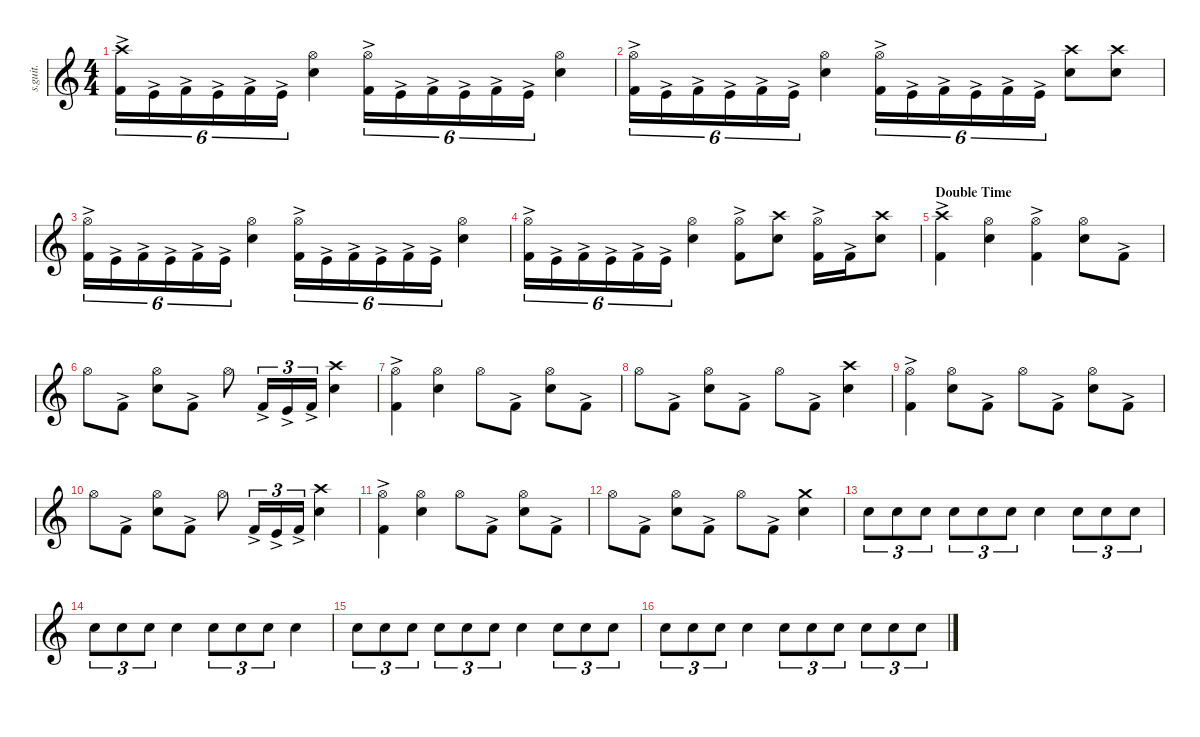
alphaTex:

\defaultSystemsLayout 4
\hideDynamics
\bracketExtendMode nobrackets
\track ("Lars Ulrich - Drums" "s.guit.") {instrument percussion}
\staff {score}
\articulation defaults
\ts (4 4)
\tempo (108 hide)
\clef g2
\ks c
("Kick (hit) 2"{ac} "Crash high (hit)").16{tu (6 4) lyrics (0 "") lyrics (1 "") lyrics (2 "") lyrics (3 "") lyrics (4 "") dy f} "Kick (hit)"{ac}.16{tu (6 4) lyrics (0 "") lyrics (1 "") lyrics (2 "") lyrics (3 "") lyrics (4 "")} "Kick (hit) 2"{ac}.16{tu (6 4) lyrics (0 "") lyrics (1 "") lyrics (2 "") lyrics (3 "") lyrics (4 "") dy mp} "Kick (hit)"{ac}.16{tu (6 4) lyrics (0 "") lyrics (1 "") lyrics (2 "") lyrics (3 "") lyrics (4 "")} "Kick (hit) 2"{ac}.16{tu (6 4) lyrics (0 "") lyrics (1 "") lyrics (2 "") lyrics (3 "") lyrics (4 "")} "Kick (hit)"{ac}.16{tu (6 4) lyrics (0 "") lyrics (1 "") lyrics (2 "") lyrics (3 "") lyrics (4 "")} ("Hi-Hat (open)" "Snare (hit) 2").4{lyrics (0 "") lyrics (1 "") lyrics (2 "") lyrics (3 "") lyrics (4 "") dy f} ("Hi-Hat (open)" "Kick (hit) 2"{ac}).16{tu (6 4) lyrics (0 "") lyrics (1 "") lyrics (2 "") lyrics (3 "") lyrics (4 "")} "Kick (hit)"{ac}.16{tu (6 4) lyrics (0 "") lyrics (1 "") lyrics (2 "") lyrics (3 "") lyrics (4 "")} "Kick (hit) 2"{ac}.16{tu (6 4) lyrics (0 "") lyrics (1 "") lyrics (2 "") lyrics (3 "") lyrics (4 "") dy mp} "Kick (hit)"{ac}.16{tu (6 4) lyrics (0 "") lyrics (1 "") lyrics (2 "") lyrics (3 "") lyrics (4 "")} "Kick (hit) 2"{ac}.16{tu (6 4) lyrics (0 "") lyrics (1 "") lyrics (2 "") lyrics (3 "") lyrics (4 "")} "Kick (hit)"{ac}.16{tu (6 4) lyrics (0 "") lyrics (1 "") lyrics (2 "") lyrics (3 "") lyrics (4 "")} ("Hi-Hat (open)" "Snare (hit) 2").4{lyrics (0 "") lyrics (1 "") lyrics (2 "") lyrics (3 "") lyrics (4 "") dy f} |
("Hi-Hat (open)" "Kick (hit) 2"{ac}).16{tu (6 4) lyrics (0 "") lyrics (1 "") lyrics (2 "") lyrics (3 "") lyrics (4 "")} "Kick (hit)"{ac}.16{tu (6 4) lyrics (0 "") lyrics (1 "") lyrics (2 "") lyrics (3 "") lyrics (4 "")} "Kick (hit) 2"{ac}.16{tu (6 4) lyrics (0 "") lyrics (1 "") lyrics (2 "") lyrics (3 "") lyrics (4 "") dy mp} "Kick (hit)"{ac}.16{tu (6 4) lyrics (0 "") lyrics (1 "") lyrics (2 "") lyrics (3 "") lyrics (4 "")} "Kick (hit) 2"{ac}.16{tu (6 4) lyrics (0 "") lyrics (1 "") lyrics (2 "") lyrics (3 "") lyrics (4 "")} "Kick (hit)"{ac}.16{tu (6 4) lyrics (0 "") lyrics (1 "") lyrics (2 "") lyrics (3 "") lyrics (4 "")} ("Hi-Hat (open)" "Snare (hit) 2").4{lyrics (0 "") lyrics (1 "") lyrics (2 "") lyrics (3 "") lyrics (4 "") dy f} ("Hi-Hat (open)" "Kick (hit) 2"{ac}).16{tu (6 4) lyrics (0 "") lyrics (1 "") lyrics (2 "") lyrics (3 "") lyrics (4 "")} "Kick (hit)"{ac}.16{tu (6 4) lyrics (0 "") lyrics (1 "") lyrics (2 "") lyrics (3 "") lyrics (4 "")} "Kick (hit) 2"{ac}.16{tu (6 4) lyrics (0 "") lyrics (1 "") lyrics (2 "") lyrics (3 "") lyrics (4 "") dy mp} "Kick (hit)"{ac}.16{tu (6 4) lyrics (0 "") lyrics (1 "") lyrics (2 "") lyrics (3 "") lyrics (4 "")} "Kick (hit) 2"{ac}.16{tu (6 4) lyrics (0 "") lyrics (1 "") lyrics (2 "") lyrics (3 "") lyrics (4 "")} "Kick (hit)"{ac}.16{tu (6 4) lyrics (0 "") lyrics (1 "") lyrics (2 "") lyrics (3 "") lyrics (4 "")} ("Snare (hit) 2" "Crash high (hit)").8{lyrics (0 "") lyrics (1 "") lyrics (2 "") lyrics (3 "") lyrics (4 "") dy f} ("Snare (hit) 2" "Crash high (hit)").8{lyrics (0 "") lyrics (1 "") lyrics (2 "") lyrics (3 "") lyrics (4 "")} |
("Hi-Hat (open)" "Kick (hit) 2"{ac}).16{tu (6 4) lyrics (0 "") lyrics (1 "") lyrics (2 "") lyrics (3 "") lyrics (4 "")} "Kick (hit)"{ac}.16{tu (6 4) lyrics (0 "") lyrics (1 "") lyrics (2 "") lyrics (3 "") lyrics (4 "")} "Kick (hit) 2"{ac}.16{tu (6 4) lyrics (0 "") lyrics (1 "") lyrics (2 "") lyrics (3 "") lyrics (4 "") dy mp} "Kick (hit)"{ac}.16{tu (6 4) lyrics (0 "") lyrics (1 "") lyrics (2 "") lyrics (3 "") lyrics (4 "")} "Kick (hit) 2"{ac}.16{tu (6 4) lyrics (0 "") lyrics (1 "") lyrics (2 "") lyrics (3 "") lyrics (4 "")} "Kick (hit)"{ac}.16{tu (6 4) lyrics (0 "") lyrics (1 "") lyrics (2 "") lyrics (3 "") lyrics (4 "")} ("Hi-Hat (open)" "Snare (hit) 2").4{lyrics (0 "") lyrics (1 "") lyrics (2 "") lyrics (3 "") lyrics (4 "") dy f} ("Hi-Hat (open)" "Kick (hit) 2"{ac}).16{tu (6 4) lyrics (0 "") lyrics (1 "") lyrics (2 "") lyrics (3 "") lyrics (4 "")} "Kick (hit)"{ac}.16{tu (6 4) lyrics (0 "") lyrics (1 "") lyrics (2 "") lyrics (3 "") lyrics (4 "")} "Kick (hit) 2"{ac}.16{tu (6 4) lyrics (0 "") lyrics (1 "") lyrics (2 "") lyrics (3 "") lyrics (4 "") dy mp} "Kick (hit)"{ac}.16{tu (6 4) lyrics (0 "") lyrics (1 "") lyrics (2 "") lyrics (3 "") lyrics (4 "")} "Kick (hit) 2"{ac}.16{tu (6 4) lyrics (0 "") lyrics (1 "") lyrics (2 "") lyrics (3 "") lyrics (4 "")} "Kick (hit)"{ac}.16{tu (6 4) lyrics (0 "") lyrics (1 "") lyrics (2 "") lyrics (3 "") lyrics (4 "")} ("Hi-Hat (open)" "Snare (hit) 2").4{lyrics (0 "") lyrics (1 "") lyrics (2 "") lyrics (3 "") lyrics (4 "") dy f} |
("Hi-Hat (open)" "Kick (hit) 2"{ac}).16{tu (6 4) lyrics (0 "") lyrics (1 "") lyrics (2 "") lyrics (3 "") lyrics (4 "")} "Kick (hit)"{ac}.16{tu (6 4) lyrics (0 "") lyrics (1 "") lyrics (2 "") lyrics (3 "") lyrics (4 "")} "Kick (hit) 2"{ac}.16{tu (6 4) lyrics (0 "") lyrics (1 "") lyrics (2 "") lyrics (3 "") lyrics (4 "") dy mp} "Kick (hit)"{ac}.16{tu (6 4) lyrics (0 "") lyrics (1 "") lyrics (2 "") lyrics (3 "") lyrics (4 "")} "Kick (hit) 2"{ac}.16{tu (6 4) lyrics (0 "") lyrics (1 "") lyrics (2 "") lyrics (3 "") lyrics (4 "")} "Kick (hit)"{ac}.16{tu (6 4) lyrics (0 "") lyrics (1 "") lyrics (2 "") lyrics (3 "") lyrics (4 "")} ("Hi-Hat (open)" "Snare (hit) 2").4{lyrics (0 "") lyrics (1 "") lyrics (2 "") lyrics (3 "") lyrics (4 "") dy f} ("Hi-Hat (open)" "Kick (hit) 2"{ac}).8{lyrics (0 "") lyrics (1 "") lyrics (2 "") lyrics (3 "") lyrics (4 "")} ("Crash high (hit)" "Snare (hit) 2").8{lyrics (0 "") lyrics (1 "") lyrics (2 "") lyrics (3 "") lyrics (4 "")} ("Hi-Hat (open)" "Kick (hit) 2"{ac}).16{lyrics (0 "") lyrics (1 "") lyrics (2 "") lyrics (3 "") lyrics (4 "")} "Kick (hit) 2"{ac}.16{lyrics (0 "") lyrics (1 "") lyrics (2 "") lyrics (3 "") lyrics (4 "") dy mp} ("Snare (hit) 2" "Crash high (hit)").8{lyrics (0 "") lyrics (1 "") lyrics (2 "") lyrics (3 "") lyrics (4 "") dy f} |
\section ("" "Double Time")
\tempo (220 hide)
("Crash high (hit)" "Kick (hit) 2"{ac}).4{lyrics (0 "") lyrics (1 "") lyrics (2 "") lyrics (3 "") lyrics (4 "")} ("Hi-Hat (open)" "Snare (hit) 2").4{lyrics (0 "") lyrics (1 "") lyrics (2 "") lyrics (3 "") lyrics (4 "")} ("Hi-Hat (open)" "Kick (hit) 2"{ac}).4{lyrics (0 "") lyrics (1 "") lyrics (2 "") lyrics (3 "") lyrics (4 "")} ("Hi-Hat (open)" "Snare (hit) 2").8{lyrics (0 "") lyrics (1 "") lyrics (2 "") lyrics (3 "") lyrics (4 "")} "Kick (hit) 2"{ac}.8{lyrics (0 "") lyrics (1 "") lyrics (2 "") lyrics (3 "") lyrics (4 "") dy mp} |
"Hi-Hat (open)".8{lyrics (0 "") lyrics (1 "") lyrics (2 "") lyrics (3 "") lyrics (4 "") dy f} "Kick (hit) 2"{ac}.8{lyrics (0 "") lyrics (1 "") lyrics (2 "") lyrics (3 "") lyrics (4 "") dy mp} ("Hi-Hat (open)" "Snare (hit) 2").8{lyrics (0 "") lyrics (1 "") lyrics (2 "") lyrics (3 "") lyrics (4 "") dy f} "Kick (hit) 2"{ac}.8{lyrics (0 "") lyrics (1 "") lyrics (2 "") lyrics (3 "") lyrics (4 "") dy mp} "Hi-Hat (open)".8{lyrics (0 "") lyrics (1 "") lyrics (2 "") lyrics (3 "") lyrics (4 "") dy f} "Kick (hit) 2"{ac}.16{tu (3 2) lyrics (0 "") lyrics (1 "") lyrics (2 "") lyrics (3 "") lyrics (4 "") dy mp} "Kick (hit)"{ac}.16{tu (3 2) lyrics (0 "") lyrics (1 "") lyrics (2 "") lyrics (3 "") lyrics (4 "") dy mf} "Kick (hit) 2"{ac}.16{tu (3 2) lyrics (0 "") lyrics (1 "") lyrics (2 "") lyrics (3 "") lyrics (4 "") dy mp} ("Crash high (hit)" "Snare (hit) 2").4{lyrics (0 "") lyrics (1 "") lyrics (2 "") lyrics (3 "") lyrics (4 "") dy f} |
("Hi-Hat (open)" "Kick (hit) 2"{ac}).4{lyrics (0 "") lyrics (1 "") lyrics (2 "") lyrics (3 "") lyrics (4 "")} ("Hi-Hat (open)" "Snare (hit) 2").4{lyrics (0 "") lyrics (1 "") lyrics (2 "") lyrics (3 "") lyrics (4 "")} "Hi-Hat (open)".8{lyrics (0 "") lyrics (1 "") lyrics (2 "") lyrics (3 "") lyrics (4 "")} "Kick (hit) 2"{ac}.8{lyrics (0 "") lyrics (1 "") lyrics (2 "") lyrics (3 "") lyrics (4 "") dy mp} ("Hi-Hat (open)" "Snare (hit) 2").8{lyrics (0 "") lyrics (1 "") lyrics (2 "") lyrics (3 "") lyrics (4 "") dy f} "Kick (hit) 2"{ac}.8{lyrics (0 "") lyrics (1 "") lyrics (2 "") lyrics (3 "") lyrics (4 "") dy mp} |
"Hi-Hat (open)".8{lyrics (0 "") lyrics (1 "") lyrics (2 "") lyrics (3 "") lyrics (4 "") dy f} "Kick (hit) 2"{ac}.8{lyrics (0 "") lyrics (1 "") lyrics (2 "") lyrics (3 "") lyrics (4 "") dy mp} ("Hi-Hat (open)" "Snare (hit) 2").8{lyrics (0 "") lyrics (1 "") lyrics (2 "") lyrics (3 "") lyrics (4 "") dy f} "Kick (hit) 2"{ac}.8{lyrics (0 "") lyrics (1 "") lyrics (2 "") lyrics (3 "") lyrics (4 "") dy mp} "Hi-Hat (open)".8{lyrics (0 "") lyrics (1 "") lyrics (2 "") lyrics (3 "") lyrics (4 "") dy f} "Kick (hit) 2"{ac}.8{lyrics (0 "") lyrics (1 "") lyrics (2 "") lyrics (3 "") lyrics (4 "") dy mp} ("Snare (hit) 2" "Crash high (hit)").4{lyrics (0 "") lyrics (1 "") lyrics (2 "") lyrics (3 "") lyrics (4 "") dy f} |
("Hi-Hat (open)" "Kick (hit) 2"{ac}).4{lyrics (0 "") lyrics (1 "") lyrics (2 "") lyrics (3 "") lyrics (4 "")} ("Hi-Hat (open)" "Snare (hit) 2").8{lyrics (0 "") lyrics (1 "") lyrics (2 "") lyrics (3 "") lyrics (4 "")} "Kick (hit) 2"{ac}.8{lyrics (0 "") lyrics (1 "") lyrics (2 "") lyrics (3 "") lyrics (4 "") dy mp} "Hi-Hat (open)".8{lyrics (0 "") lyrics (1 "") lyrics (2 "") lyrics (3 "") lyrics (4 "") dy f} "Kick (hit) 2"{ac}.8{lyrics (0 "") lyrics (1 "") lyrics (2 "") lyrics (3 "") lyrics (4 "") dy mp} ("Hi-Hat (open)" "Snare (hit) 2").8{lyrics (0 "") lyrics (1 "") lyrics (2 "") lyrics (3 "") lyrics (4 "") dy f} "Kick (hit) 2"{ac}.8{lyrics (0 "") lyrics (1 "") lyrics (2 "") lyrics (3 "") lyrics (4 "") dy mp} |
"Hi-Hat (open)".8{lyrics (0 "") lyrics (1 "") lyrics (2 "") lyrics (3 "") lyrics (4 "") dy f} "Kick (hit) 2"{ac}.8{lyrics (0 "") lyrics (1 "") lyrics (2 "") lyrics (3 "") lyrics (4 "") dy mp} ("Hi-Hat (open)" "Snare (hit) 2").8{lyrics (0 "") lyrics (1 "") lyrics (2 "") lyrics (3 "") lyrics (4 "") dy f} "Kick (hit) 2"{ac}.8{lyrics (0 "") lyrics (1 "") lyrics (2 "") lyrics (3 "") lyrics (4 "") dy mp} "Hi-Hat (open)".8{lyrics (0 "") lyrics (1 "") lyrics (2 "") lyrics (3 "") lyrics (4 "") dy f} "Kick (hit) 2"{ac}.16{tu (3 2) lyrics (0 "") lyrics (1 "") lyrics (2 "") lyrics (3 "") lyrics (4 "") dy mp} "Kick (hit)"{ac}.16{tu (3 2) lyrics (0 "") lyrics (1 "") lyrics (2 "") lyrics (3 "") lyrics (4 "") dy mf} "Kick (hit) 2"{ac}.16{tu (3 2) lyrics (0 "") lyrics (1 "") lyrics (2 "") lyrics (3 "") lyrics (4 "") dy mp} ("Crash high (hit)" "Snare (hit) 2").4{lyrics (0 "") lyrics (1 "") lyrics (2 "") lyrics (3 "") lyrics (4 "") dy f} |
("Hi-Hat (open)" "Kick (hit) 2"{ac}).4{lyrics (0 "") lyrics (1 "") lyrics (2 "") lyrics (3 "") lyrics (4 "")} ("Hi-Hat (open)" "Snare (hit) 2").4{lyrics (0 "") lyrics (1 "") lyrics (2 "") lyrics (3 "") lyrics (4 "")} "Hi-Hat (open)".8{lyrics (0 "") lyrics (1 "") lyrics (2 "") lyrics (3 "") lyrics (4 "")} "Kick (hit) 2"{ac}.8{lyrics (0 "") lyrics (1 "") lyrics (2 "") lyrics (3 "") lyrics (4 "") dy mp} ("Hi-Hat (open)" "Snare (hit) 2").8{lyrics (0 "") lyrics (1 "") lyrics (2 "") lyrics (3 "") lyrics (4 "") dy f} "Kick (hit) 2"{ac}.8{lyrics (0 "") lyrics (1 "") lyrics (2 "") lyrics (3 "") lyrics (4 "") dy mp} |
"Hi-Hat (open)".8{lyrics (0 "") lyrics (1 "") lyrics (2 "") lyrics (3 "") lyrics (4 "") dy f} "Kick (hit) 2"{ac}.8{lyrics (0 "") lyrics (1 "") lyrics (2 "") lyrics (3 "") lyrics (4 "") dy mp} ("Hi-Hat (open)" "Snare (hit) 2").8{lyrics (0 "") lyrics (1 "") lyrics (2 "") lyrics (3 "") lyrics (4 "") dy f} "Kick (hit) 2"{ac}.8{lyrics (0 "") lyrics (1 "") lyrics (2 "") lyrics (3 "") lyrics (4 "") dy mp} "Hi-Hat (open)".8{lyrics (0 "") lyrics (1 "") lyrics (2 "") lyrics (3 "") lyrics (4 "") dy f} "Kick (hit) 2"{ac}.8{lyrics (0 "") lyrics (1 "") lyrics (2 "") lyrics (3 "") lyrics (4 "") dy mp} ("Crash medium (hit)" "Snare (hit) 2").4{lyrics (0 "") lyrics (1 "") lyrics (2 "") lyrics (3 "") lyrics (4 "") dy f} |
"Snare (hit) 2".8{tu (3 2) lyrics (0 "") lyrics (1 "") lyrics (2 "") lyrics (3 "") lyrics (4 "")} "Snare (hit) 2".8{tu (3 2) lyrics (0 "") lyrics (1 "") lyrics (2 "") lyrics (3 "") lyrics (4 "")} "Snare (hit) 2".8{tu (3 2) lyrics (0 "") lyrics (1 "") lyrics (2 "") lyrics (3 "") lyrics (4 "")} "Snare (hit) 2".8{tu (3 2) lyrics (0 "") lyrics (1 "") lyrics (2 "") lyrics (3 "") lyrics (4 "")} "Snare (hit) 2".8{tu (3 2) lyrics (0 "") lyrics (1 "") lyrics (2 "") lyrics (3 "") lyrics (4 "")} "Snare (hit) 2".8{tu (3 2) lyrics (0 "") lyrics (1 "") lyrics (2 "") lyrics (3 "") lyrics (4 "")} "Snare (hit) 2".4{lyrics (0 "") lyrics (1 "") lyrics (2 "") lyrics (3 "") lyrics (4 "")} "Snare (hit) 2".8{tu (3 2) lyrics (0 "") lyrics (1 "") lyrics (2 "") lyrics (3 "") lyrics (4 "")} "Snare (hit) 2".8{tu (3 2) lyrics (0 "") lyrics (1 "") lyrics (2 "") lyrics (3 "") lyrics (4 "")} "Snare (hit) 2".8{tu (3 2) lyrics (0 "") lyrics (1 "") lyrics (2 "") lyrics (3 "") lyrics (4 "")} |
"Snare (hit) 2".8{tu (3 2) lyrics (0 "") lyrics (1 "") lyrics (2 "") lyrics (3 "") lyrics (4 "")} "Snare (hit) 2".8{tu (3 2) lyrics (0 "") lyrics (1 "") lyrics (2 "") lyrics (3 "") lyrics (4 "")} "Snare (hit) 2".8{tu (3 2) lyrics (0 "") lyrics (1 "") lyrics (2 "") lyrics (3 "") lyrics (4 "")} "Snare (hit) 2".4{lyrics (0 "") lyrics (1 "") lyrics (2 "") lyrics (3 "") lyrics (4 "")} "Snare (hit) 2".8{tu (3 2) lyrics (0 "") lyrics (1 "") lyrics (2 "") lyrics (3 "") lyrics (4 "")} "Snare (hit) 2".8{tu (3 2) lyrics (0 "") lyrics (1 "") lyrics (2 "") lyrics (3 "") lyrics (4 "")} "Snare (hit) 2".8{tu (3 2) lyrics (0 "") lyrics (1 "") lyrics (2 "") lyrics (3 "") lyrics (4 "")} "Snare (hit) 2".4{lyrics (0 "") lyrics (1 "") lyrics (2 "") lyrics (3 "") lyrics (4 "")} |
"Snare (hit) 2".8{tu (3 2) lyrics (0 "") lyrics (1 "") lyrics (2 "") lyrics (3 "") lyrics (4 "")} "Snare (hit) 2".8{tu (3 2) lyrics (0 "") lyrics (1 "") lyrics (2 "") lyrics (3 "") lyrics (4 "")} "Snare (hit) 2".8{tu (3 2) lyrics (0 "") lyrics (1 "") lyrics (2 "") lyrics (3 "") lyrics (4 "")} "Snare (hit) 2".8{tu (3 2) lyrics (0 "") lyrics (1 "") lyrics (2 "") lyrics (3 "") lyrics (4 "")} "Snare (hit) 2".8{tu (3 2) lyrics (0 "") lyrics (1 "") lyrics (2 "") lyrics (3 "") lyrics (4 "")} "Snare (hit) 2".8{tu (3 2) lyrics (0 "") lyrics (1 "") lyrics (2 "") lyrics (3 "") lyrics (4 "")} "Snare (hit) 2".4{lyrics (0 "") lyrics (1 "") lyrics (2 "") lyrics (3 "") lyrics (4 "")} "Snare (hit) 2".8{tu (3 2) lyrics (0 "") lyrics (1 "") lyrics (2 "") lyrics (3 "") lyrics (4 "")} "Snare (hit) 2".8{tu (3 2) lyrics (0 "") lyrics (1 "") lyrics (2 "") lyrics (3 "") lyrics (4 "")} "Snare (hit) 2".8{tu (3 2) lyrics (0 "") lyrics (1 "") lyrics (2 "") lyrics (3 "") lyrics (4 "")} |
"Snare (hit) 2".8{tu (3 2) lyrics (0 "") lyrics (1 "") lyrics (2 "") lyrics (3 "") lyrics (4 "")} "Snare (hit) 2".8{tu (3 2) lyrics (0 "") lyrics (1 "") lyrics (2 "") lyrics (3 "") lyrics (4 "")} "Snare (hit) 2".8{tu (3 2) lyrics (0 "") lyrics (1 "") lyrics (2 "") lyrics (3 "") lyrics (4 "")} "Snare (hit) 2".4{lyrics (0 "") lyrics (1 "") lyrics (2 "") lyrics (3 "") lyrics (4 "")} "Snare (hit) 2".8{tu (3 2) lyrics (0 "") lyrics (1 "") lyrics (2 "") lyrics (3 "") lyrics (4 "")} "Snare (hit) 2".8{tu (3 2) lyrics (0 "") lyrics (1 "") lyrics (2 "") lyrics (3 "") lyrics (4 "")} "Snare (hit) 2".8{tu (3 2) lyrics (0 "") lyrics (1 "") lyrics (2 "") lyrics (3 "") lyrics (4 "")} "Snare (hit) 2".8{tu (3 2) lyrics (0 "") lyrics (1 "") lyrics (2 "") lyrics (3 "") lyrics (4 "")} "Snare (hit) 2".8{tu (3 2) lyrics (0 "") lyrics (1 "") lyrics (2 "") lyrics (3 "") lyrics (4 "")} "Snare (hit) 2".8{tu (3 2) lyrics (0 "") lyrics (1 "") lyrics (2 "") lyrics (3 "") lyrics (4 "")}
